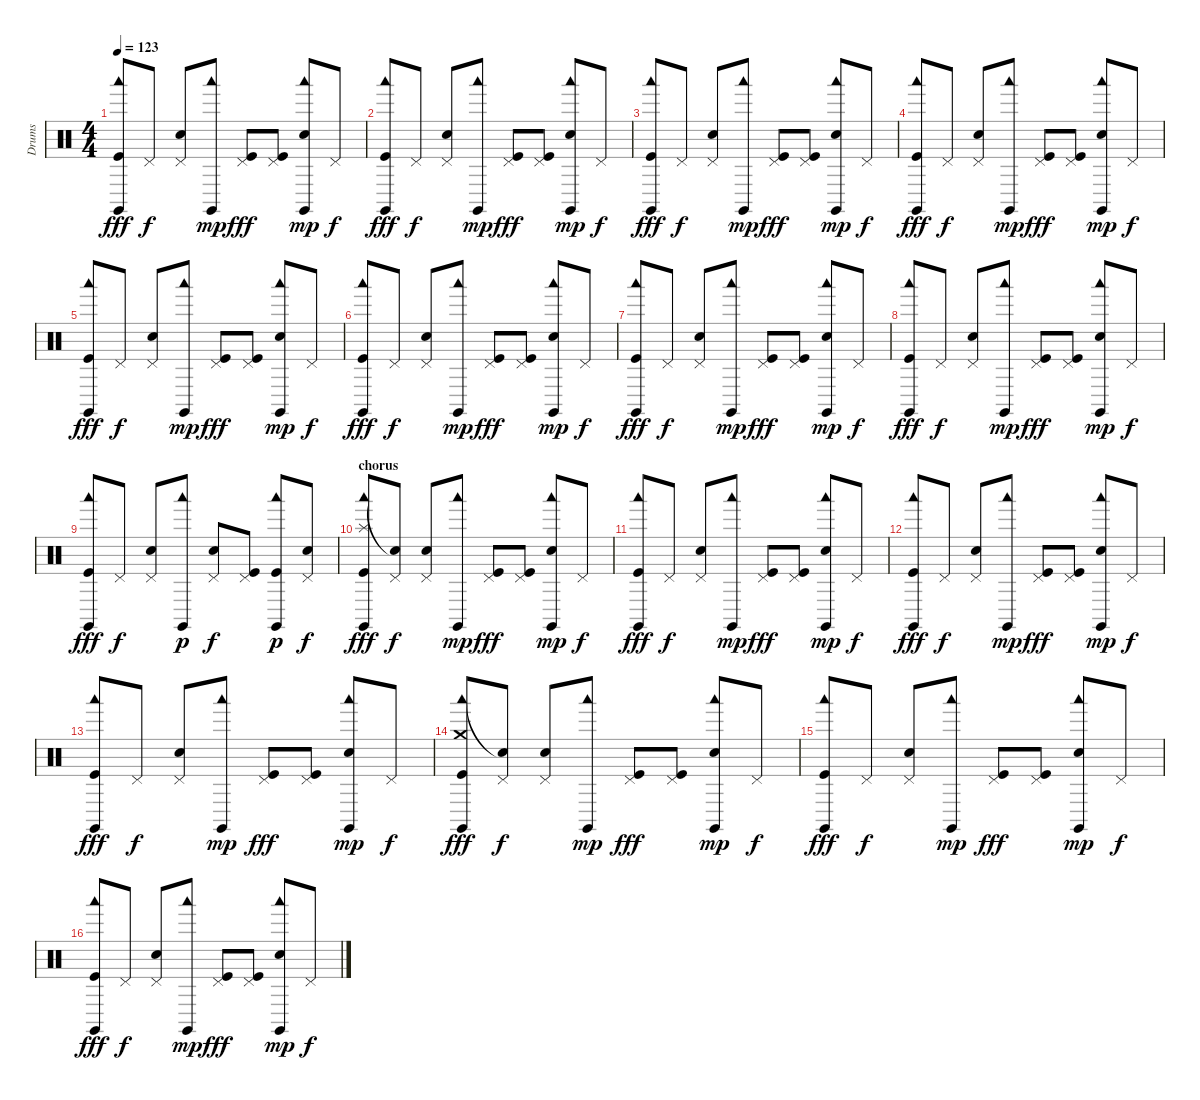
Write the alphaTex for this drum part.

\track ("Drums" "Drums") {instrument percussion}
\staff {score}
\articulation defaults
\ts (4 4)
\tempo 123
\clef neutral
\ks c
("Claves (hit)" "Woodblock low (hit)" "Kick (hit)").8{dy fff} "Pedal Hi-Hat (hit)".8{dy f} ("Pedal Hi-Hat (hit)" "Electric Snare (hit)").8 ("Claves (hit)" "Woodblock low (hit)").8{dy mp} ("Pedal Hi-Hat (hit)" "Kick (hit)").8{dy fff} ("Pedal Hi-Hat (hit)" "Kick (hit)").8 ("Claves (hit)" "Woodblock low (hit)" "Electric Snare (hit)").8{dy mp} "Pedal Hi-Hat (hit)".8{dy f} |
("Claves (hit)" "Woodblock low (hit)" "Kick (hit)").8{dy fff} "Pedal Hi-Hat (hit)".8{dy f} ("Pedal Hi-Hat (hit)" "Electric Snare (hit)").8 ("Claves (hit)" "Woodblock low (hit)").8{dy mp} ("Pedal Hi-Hat (hit)" "Kick (hit)").8{dy fff} ("Pedal Hi-Hat (hit)" "Kick (hit)").8 ("Claves (hit)" "Woodblock low (hit)" "Electric Snare (hit)").8{dy mp} "Pedal Hi-Hat (hit)".8{dy f} |
("Claves (hit)" "Woodblock low (hit)" "Kick (hit)").8{dy fff} "Pedal Hi-Hat (hit)".8{dy f} ("Pedal Hi-Hat (hit)" "Electric Snare (hit)").8 ("Claves (hit)" "Woodblock low (hit)").8{dy mp} ("Pedal Hi-Hat (hit)" "Kick (hit)").8{dy fff} ("Pedal Hi-Hat (hit)" "Kick (hit)").8 ("Claves (hit)" "Woodblock low (hit)" "Electric Snare (hit)").8{dy mp} "Pedal Hi-Hat (hit)".8{dy f} |
("Claves (hit)" "Woodblock low (hit)" "Kick (hit)").8{dy fff} "Pedal Hi-Hat (hit)".8{dy f} ("Pedal Hi-Hat (hit)" "Electric Snare (hit)").8 ("Claves (hit)" "Woodblock low (hit)").8{dy mp} ("Pedal Hi-Hat (hit)" "Kick (hit)").8{dy fff} ("Pedal Hi-Hat (hit)" "Kick (hit)").8 ("Claves (hit)" "Woodblock low (hit)" "Electric Snare (hit)").8{dy mp} "Pedal Hi-Hat (hit)".8{dy f} |
("Claves (hit)" "Woodblock low (hit)" "Kick (hit)").8{dy fff} "Pedal Hi-Hat (hit)".8{dy f} ("Pedal Hi-Hat (hit)" "Electric Snare (hit)").8 ("Claves (hit)" "Woodblock low (hit)").8{dy mp} ("Pedal Hi-Hat (hit)" "Kick (hit)").8{dy fff} ("Pedal Hi-Hat (hit)" "Kick (hit)").8 ("Claves (hit)" "Woodblock low (hit)" "Electric Snare (hit)").8{dy mp} "Pedal Hi-Hat (hit)".8{dy f} |
("Claves (hit)" "Woodblock low (hit)" "Kick (hit)").8{dy fff} "Pedal Hi-Hat (hit)".8{dy f} ("Pedal Hi-Hat (hit)" "Electric Snare (hit)").8 ("Claves (hit)" "Woodblock low (hit)").8{dy mp} ("Pedal Hi-Hat (hit)" "Kick (hit)").8{dy fff} ("Pedal Hi-Hat (hit)" "Kick (hit)").8 ("Claves (hit)" "Woodblock low (hit)" "Electric Snare (hit)").8{dy mp} "Pedal Hi-Hat (hit)".8{dy f} |
("Claves (hit)" "Woodblock low (hit)" "Kick (hit)").8{dy fff} "Pedal Hi-Hat (hit)".8{dy f} ("Pedal Hi-Hat (hit)" "Electric Snare (hit)").8 ("Claves (hit)" "Woodblock low (hit)").8{dy mp} ("Pedal Hi-Hat (hit)" "Kick (hit)").8{dy fff} ("Pedal Hi-Hat (hit)" "Kick (hit)").8 ("Claves (hit)" "Woodblock low (hit)" "Electric Snare (hit)").8{dy mp} "Pedal Hi-Hat (hit)".8{dy f} |
("Claves (hit)" "Woodblock low (hit)" "Kick (hit)").8{dy fff} "Pedal Hi-Hat (hit)".8{dy f} ("Pedal Hi-Hat (hit)" "Electric Snare (hit)").8 ("Claves (hit)" "Woodblock low (hit)").8{dy mp} ("Pedal Hi-Hat (hit)" "Kick (hit)").8{dy fff} ("Pedal Hi-Hat (hit)" "Kick (hit)").8 ("Claves (hit)" "Woodblock low (hit)" "Electric Snare (hit)").8{dy mp} "Pedal Hi-Hat (hit)".8{dy f} |
("Claves (hit)" "Woodblock low (hit)" "Kick (hit)").8{dy fff} "Pedal Hi-Hat (hit)".8{dy f} ("Pedal Hi-Hat (hit)" "Electric Snare (hit)").8 ("Claves (hit)" "Woodblock low (hit)").8{dy p} ("Pedal Hi-Hat (hit)" "Electric Snare (hit)").8{dy f} ("Pedal Hi-Hat (hit)" "Kick (hit)").8 ("Claves (hit)" "Woodblock low (hit)" "Kick (hit)").8{dy p} ("Pedal Hi-Hat (hit)" "Electric Snare (hit)").8{dy f} |
\section ("" "chorus")
("Claves (hit)" "Woodblock low (hit)" "Splash (hit)" "Kick (hit)").8{dy fff} ("Pedal Hi-Hat (hit)" "Snare (hit)"{t}).8{dy f} ("Pedal Hi-Hat (hit)" "Electric Snare (hit)").8 ("Claves (hit)" "Woodblock low (hit)").8{dy mp} ("Pedal Hi-Hat (hit)" "Kick (hit)").8{dy fff} ("Pedal Hi-Hat (hit)" "Kick (hit)").8 ("Claves (hit)" "Woodblock low (hit)" "Electric Snare (hit)").8{dy mp} "Pedal Hi-Hat (hit)".8{dy f} |
("Claves (hit)" "Woodblock low (hit)" "Kick (hit)").8{dy fff} "Pedal Hi-Hat (hit)".8{dy f} ("Pedal Hi-Hat (hit)" "Electric Snare (hit)").8 ("Claves (hit)" "Woodblock low (hit)").8{dy mp} ("Pedal Hi-Hat (hit)" "Kick (hit)").8{dy fff} ("Pedal Hi-Hat (hit)" "Kick (hit)").8 ("Claves (hit)" "Woodblock low (hit)" "Electric Snare (hit)").8{dy mp} "Pedal Hi-Hat (hit)".8{dy f} |
("Claves (hit)" "Woodblock low (hit)" "Kick (hit)").8{dy fff} "Pedal Hi-Hat (hit)".8{dy f} ("Pedal Hi-Hat (hit)" "Electric Snare (hit)").8 ("Claves (hit)" "Woodblock low (hit)").8{dy mp} ("Pedal Hi-Hat (hit)" "Kick (hit)").8{dy fff} ("Pedal Hi-Hat (hit)" "Kick (hit)").8 ("Claves (hit)" "Woodblock low (hit)" "Electric Snare (hit)").8{dy mp} "Pedal Hi-Hat (hit)".8{dy f} |
("Claves (hit)" "Woodblock low (hit)" "Kick (hit)").8{dy fff} "Pedal Hi-Hat (hit)".8{dy f} ("Pedal Hi-Hat (hit)" "Electric Snare (hit)").8 ("Claves (hit)" "Woodblock low (hit)").8{dy mp} ("Pedal Hi-Hat (hit)" "Kick (hit)").8{dy fff} ("Pedal Hi-Hat (hit)" "Kick (hit)").8 ("Claves (hit)" "Woodblock low (hit)" "Electric Snare (hit)").8{dy mp} "Pedal Hi-Hat (hit)".8{dy f} |
("Claves (hit)" "Woodblock low (hit)" "Crash medium (hit)" "Kick (hit)").8{dy fff} ("Pedal Hi-Hat (hit)" "Snare (hit)"{t}).8{dy f} ("Pedal Hi-Hat (hit)" "Electric Snare (hit)").8 ("Claves (hit)" "Woodblock low (hit)").8{dy mp} ("Pedal Hi-Hat (hit)" "Kick (hit)").8{dy fff} ("Pedal Hi-Hat (hit)" "Kick (hit)").8 ("Claves (hit)" "Woodblock low (hit)" "Electric Snare (hit)").8{dy mp} "Pedal Hi-Hat (hit)".8{dy f} |
("Claves (hit)" "Woodblock low (hit)" "Kick (hit)").8{dy fff} "Pedal Hi-Hat (hit)".8{dy f} ("Pedal Hi-Hat (hit)" "Electric Snare (hit)").8 ("Claves (hit)" "Woodblock low (hit)").8{dy mp} ("Pedal Hi-Hat (hit)" "Kick (hit)").8{dy fff} ("Pedal Hi-Hat (hit)" "Kick (hit)").8 ("Claves (hit)" "Woodblock low (hit)" "Electric Snare (hit)").8{dy mp} "Pedal Hi-Hat (hit)".8{dy f} |
("Claves (hit)" "Woodblock low (hit)" "Kick (hit)").8{dy fff} "Pedal Hi-Hat (hit)".8{dy f} ("Pedal Hi-Hat (hit)" "Electric Snare (hit)").8 ("Claves (hit)" "Woodblock low (hit)").8{dy mp} ("Pedal Hi-Hat (hit)" "Kick (hit)").8{dy fff} ("Pedal Hi-Hat (hit)" "Kick (hit)").8 ("Claves (hit)" "Woodblock low (hit)" "Electric Snare (hit)").8{dy mp} "Pedal Hi-Hat (hit)".8{dy f}
